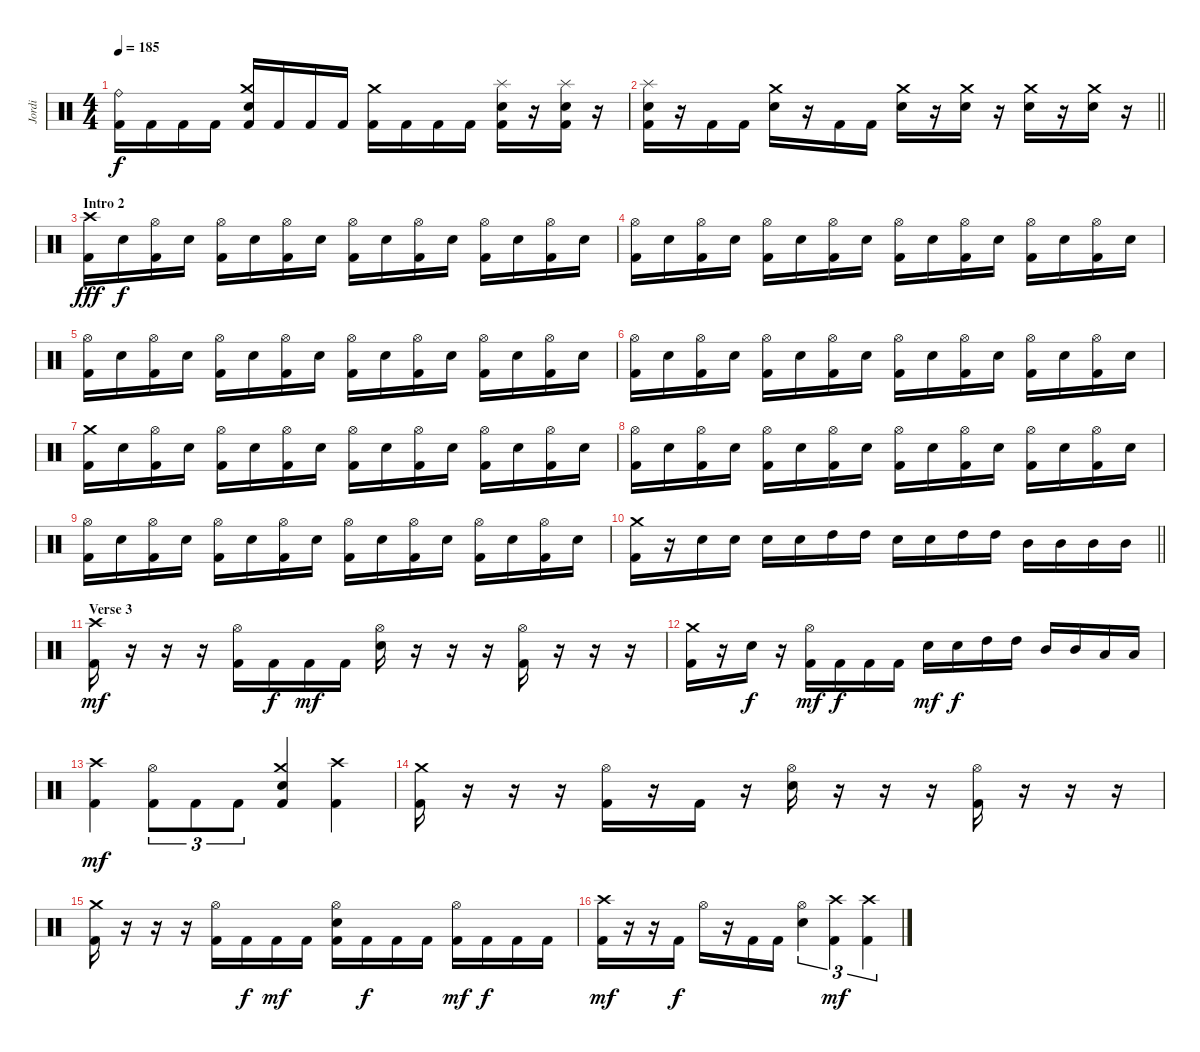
\track ("Jordi" "Jordi") {instrument percussion}
\staff {score}
\articulation defaults
\ts (4 4)
\tempo 185
\clef neutral
\ks c
("Ride (bell)" "Kick (hit) 2").16{dy f} "Kick (hit) 2".16 "Kick (hit) 2".16 "Kick (hit) 2".16 ("Crash medium (hit)" "Snare (hit) 2" "Kick (hit) 2").16 "Kick (hit) 2".16 "Kick (hit) 2".16 "Kick (hit) 2".16 ("Crash medium (hit)" "Kick (hit) 2").16 "Kick (hit) 2".16 "Kick (hit) 2".16 "Kick (hit) 2".16 ("Splash (hit)" "Snare (hit) 2" "Kick (hit) 2").16 r.16 ("Splash (hit)" "Snare (hit) 2" "Kick (hit) 2").16 r.16 |
\barLineRight lightlight
("Splash (hit)" "Snare (hit) 2" "Kick (hit) 2").16 r.16 "Kick (hit) 2".16 "Kick (hit) 2".16 ("Crash medium (hit)" "Snare (hit) 2").16 r.16 "Kick (hit) 2".16 "Kick (hit) 2".16 ("Crash medium (hit)" "Snare (hit) 2").16 r.16 ("Crash medium (hit)" "Snare (hit) 2").16 r.16 ("Crash medium (hit)" "Snare (hit) 2").16 r.16 ("Crash medium (hit)" "Snare (hit) 2").16 r.16 |
\section ("" "Intro 2")
("Crash high (hit)" "Kick (hit) 2").16{dy fff} "Snare (hit) 2".16{dy f} ("Hi-Hat (open)" "Kick (hit) 2").16 "Snare (hit) 2".16 ("Hi-Hat (open)" "Kick (hit) 2").16 "Snare (hit) 2".16 ("Hi-Hat (open)" "Kick (hit) 2").16 "Snare (hit) 2".16 ("Hi-Hat (open)" "Kick (hit) 2").16 "Snare (hit) 2".16 ("Hi-Hat (open)" "Kick (hit) 2").16 "Snare (hit) 2".16 ("Hi-Hat (open)" "Kick (hit) 2").16 "Snare (hit) 2".16 ("Hi-Hat (open)" "Kick (hit) 2").16 "Snare (hit) 2".16 |
("Hi-Hat (open)" "Kick (hit) 2").16 "Snare (hit) 2".16 ("Hi-Hat (open)" "Kick (hit) 2").16 "Snare (hit) 2".16 ("Hi-Hat (open)" "Kick (hit) 2").16 "Snare (hit) 2".16 ("Hi-Hat (open)" "Kick (hit) 2").16 "Snare (hit) 2".16 ("Hi-Hat (open)" "Kick (hit) 2").16 "Snare (hit) 2".16 ("Hi-Hat (open)" "Kick (hit) 2").16 "Snare (hit) 2".16 ("Hi-Hat (open)" "Kick (hit) 2").16 "Snare (hit) 2".16 ("Hi-Hat (open)" "Kick (hit) 2").16 "Snare (hit) 2".16 |
("Hi-Hat (open)" "Kick (hit) 2").16 "Snare (hit) 2".16 ("Hi-Hat (open)" "Kick (hit) 2").16 "Snare (hit) 2".16 ("Hi-Hat (open)" "Kick (hit) 2").16 "Snare (hit) 2".16 ("Hi-Hat (open)" "Kick (hit) 2").16 "Snare (hit) 2".16 ("Hi-Hat (open)" "Kick (hit) 2").16 "Snare (hit) 2".16 ("Hi-Hat (open)" "Kick (hit) 2").16 "Snare (hit) 2".16 ("Hi-Hat (open)" "Kick (hit) 2").16 "Snare (hit) 2".16 ("Hi-Hat (open)" "Kick (hit) 2").16 "Snare (hit) 2".16 |
("Hi-Hat (open)" "Kick (hit) 2").16 "Snare (hit) 2".16 ("Hi-Hat (open)" "Kick (hit) 2").16 "Snare (hit) 2".16 ("Hi-Hat (open)" "Kick (hit) 2").16 "Snare (hit) 2".16 ("Hi-Hat (open)" "Kick (hit) 2").16 "Snare (hit) 2".16 ("Hi-Hat (open)" "Kick (hit) 2").16 "Snare (hit) 2".16 ("Hi-Hat (open)" "Kick (hit) 2").16 "Snare (hit) 2".16 ("Hi-Hat (open)" "Kick (hit) 2").16 "Snare (hit) 2".16 ("Hi-Hat (open)" "Kick (hit) 2").16 "Snare (hit) 2".16 |
("Crash medium (hit)" "Kick (hit) 2").16 "Snare (hit) 2".16 ("Hi-Hat (open)" "Kick (hit) 2").16 "Snare (hit) 2".16 ("Hi-Hat (open)" "Kick (hit) 2").16 "Snare (hit) 2".16 ("Hi-Hat (open)" "Kick (hit) 2").16 "Snare (hit) 2".16 ("Hi-Hat (open)" "Kick (hit) 2").16 "Snare (hit) 2".16 ("Hi-Hat (open)" "Kick (hit) 2").16 "Snare (hit) 2".16 ("Hi-Hat (open)" "Kick (hit) 2").16 "Snare (hit) 2".16 ("Hi-Hat (open)" "Kick (hit) 2").16 "Snare (hit) 2".16 |
("Hi-Hat (open)" "Kick (hit) 2").16 "Snare (hit) 2".16 ("Hi-Hat (open)" "Kick (hit) 2").16 "Snare (hit) 2".16 ("Hi-Hat (open)" "Kick (hit) 2").16 "Snare (hit) 2".16 ("Hi-Hat (open)" "Kick (hit) 2").16 "Snare (hit) 2".16 ("Hi-Hat (open)" "Kick (hit) 2").16 "Snare (hit) 2".16 ("Hi-Hat (open)" "Kick (hit) 2").16 "Snare (hit) 2".16 ("Hi-Hat (open)" "Kick (hit) 2").16 "Snare (hit) 2".16 ("Hi-Hat (open)" "Kick (hit) 2").16 "Snare (hit) 2".16 |
("Hi-Hat (open)" "Kick (hit) 2").16 "Snare (hit) 2".16 ("Hi-Hat (open)" "Kick (hit) 2").16 "Snare (hit) 2".16 ("Hi-Hat (open)" "Kick (hit) 2").16 "Snare (hit) 2".16 ("Hi-Hat (open)" "Kick (hit) 2").16 "Snare (hit) 2".16 ("Hi-Hat (open)" "Kick (hit) 2").16 "Snare (hit) 2".16 ("Hi-Hat (open)" "Kick (hit) 2").16 "Snare (hit) 2".16 ("Hi-Hat (open)" "Kick (hit) 2").16 "Snare (hit) 2".16 ("Hi-Hat (open)" "Kick (hit) 2").16 "Snare (hit) 2".16 |
\barLineRight lightlight
("Crash medium (hit)" "Kick (hit) 2").16 r.16 "Snare (hit) 2".16 "Snare (hit) 2".16 "Snare (hit) 2".16 "Snare (hit) 2".16 "High Tom (hit)".16 "High Tom (hit)".16 "Snare (hit) 2".16 "Snare (hit) 2".16 "High Tom (hit)".16 "High Tom (hit)".16 "Mid Tom (hit)".16 "Mid Tom (hit)".16 "Mid Tom (hit)".16 "Mid Tom (hit)".16 |
\section ("" "Verse 3")
("Crash high (hit)" "Kick (hit) 2").16{dy mf} r.16 r.16 r.16 ("Hi-Hat (open)" "Kick (hit) 2").16 "Kick (hit) 2".16{dy f} "Kick (hit) 2".16{dy mf} "Kick (hit) 2".16 ("Hi-Hat (open)" "Snare (hit) 2").16 r.16 r.16 r.16 ("Hi-Hat (open)" "Kick (hit) 2").16 r.16 r.16 r.16 |
("Crash medium (hit)" "Kick (hit) 2").16 r.16 "Snare (hit) 2".16{dy f} r.16 ("Hi-Hat (open)" "Kick (hit) 2").16{dy mf} "Kick (hit) 2".16{dy f} "Kick (hit) 2".16 "Kick (hit) 2".16 "Snare (hit) 2".16{dy mf} "Snare (hit) 2".16{dy f} "High Tom (hit)".16 "High Tom (hit)".16 "Mid Tom (hit)".16 "Mid Tom (hit)".16 "Low Tom (hit)".16 "Low Tom (hit)".16 |
("Crash high (hit)" "Kick (hit) 2").4{dy mf} ("Hi-Hat (open)" "Kick (hit) 2").8{tu (3 2)} "Kick (hit) 2".8{tu (3 2)} "Kick (hit) 2".8{tu (3 2)} ("Crash medium (hit)" "Snare (hit) 2" "Kick (hit) 2").4 ("Crash high (hit)" "Kick (hit) 2").4 |
("Crash medium (hit)" "Kick (hit) 2").16 r.16 r.16 r.16 ("Hi-Hat (open)" "Kick (hit) 2").16 r.16 "Kick (hit) 2".16 r.16 ("Hi-Hat (open)" "Snare (hit) 2").16 r.16 r.16 r.16 ("Hi-Hat (open)" "Kick (hit) 2").16 r.16 r.16 r.16 |
("Crash medium (hit)" "Kick (hit) 2").16 r.16 r.16 r.16 ("Hi-Hat (open)" "Kick (hit) 2").16 "Kick (hit) 2".16{dy f} "Kick (hit) 2".16{dy mf} "Kick (hit) 2".16 ("Hi-Hat (open)" "Snare (hit) 2" "Kick (hit) 2").16 "Kick (hit) 2".16{dy f} "Kick (hit) 2".16 "Kick (hit) 2".16 ("Hi-Hat (open)" "Kick (hit) 2").16{dy mf} "Kick (hit) 2".16{dy f} "Kick (hit) 2".16 "Kick (hit) 2".16 |
("Crash high (hit)" "Kick (hit) 2").16{dy mf} r.16 r.16 "Kick (hit) 2".16{dy f} "Hi-Hat (open)".16 r.16 "Kick (hit) 2".16 "Kick (hit) 2".16 ("Hi-Hat (open)" "Snare (hit) 2").4{tu (3 2)} ("Crash high (hit)" "Kick (hit) 2").4{tu (3 2) dy mf} ("Crash high (hit)" "Kick (hit) 2").4{tu (3 2)}
